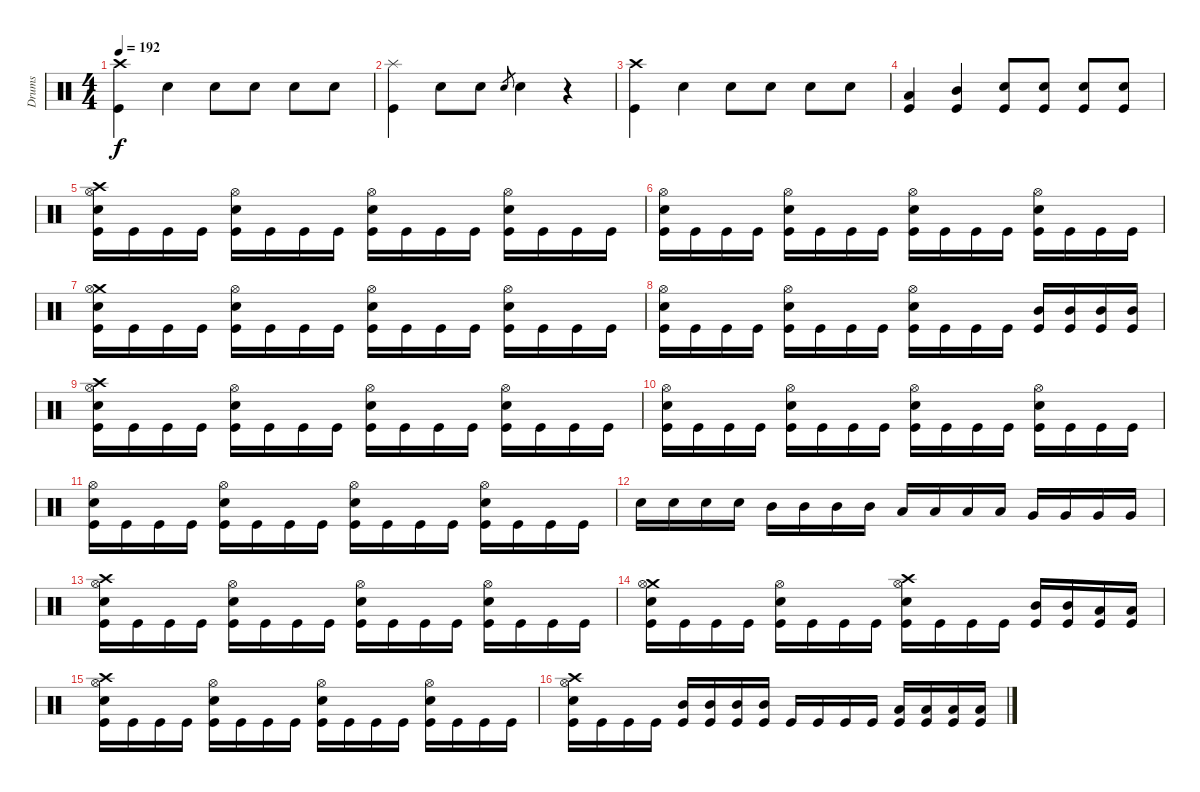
\track ("Drums" "Drums") {instrument percussion}
\staff {score}
\articulation defaults
\ts (4 4)
\tempo 192
\clef neutral
\ks c
("Crash high (hit)" "Kick (hit)").4{dy f} "Snare (hit) 2".4 "Snare (hit) 2".8 "Snare (hit) 2".8 "Snare (hit) 2".8 "Snare (hit) 2".8 |
("Splash (hit)" "Kick (hit)").4 "Snare (hit) 2".8 "Snare (hit) 2".8 "Snare (hit) 2".8{gr} "Snare (hit) 2".4 r.4 |
("Crash high (hit)" "Kick (hit)").4 "Snare (hit) 2"{tr (38 16)}.4 "Snare (hit) 2".8 "Snare (hit) 2".8 "Snare (hit) 2".8 "Snare (hit) 2".8 |
("Low Tom (hit)" "Kick (hit)").4 ("Mid Tom (hit)" "Kick (hit)").4 ("Snare (hit) 2" "Kick (hit)").8 ("Snare (hit) 2" "Kick (hit)").8 ("Snare (hit) 2" "Kick (hit)").8 ("Snare (hit) 2" "Kick (hit)").8 |
("Crash high (hit)" "Hi-Hat (open)" "Snare (hit) 2" "Kick (hit)").16 "Kick (hit)".16 "Kick (hit)".16 "Kick (hit)".16 ("Hi-Hat (open)" "Snare (hit) 2" "Kick (hit)").16 "Kick (hit)".16 "Kick (hit)".16 "Kick (hit)".16 ("Hi-Hat (open)" "Snare (hit) 2" "Kick (hit)").16 "Kick (hit)".16 "Kick (hit)".16 "Kick (hit)".16 ("Hi-Hat (open)" "Snare (hit) 2" "Kick (hit)").16 "Kick (hit)".16 "Kick (hit)".16 "Kick (hit)".16 |
("Hi-Hat (open)" "Snare (hit) 2" "Kick (hit)").16 "Kick (hit)".16 "Kick (hit)".16 "Kick (hit)".16 ("Hi-Hat (open)" "Snare (hit) 2" "Kick (hit)").16 "Kick (hit)".16 "Kick (hit)".16 "Kick (hit)".16 ("Hi-Hat (open)" "Snare (hit) 2" "Kick (hit)").16 "Kick (hit)".16 "Kick (hit)".16 "Kick (hit)".16 ("Hi-Hat (open)" "Snare (hit) 2" "Kick (hit)").16 "Kick (hit)".16 "Kick (hit)".16 "Kick (hit)".16 |
("Crash medium (hit)" "Hi-Hat (open)" "Snare (hit) 2" "Kick (hit)").16 "Kick (hit)".16 "Kick (hit)".16 "Kick (hit)".16 ("Hi-Hat (open)" "Snare (hit) 2" "Kick (hit)").16 "Kick (hit)".16 "Kick (hit)".16 "Kick (hit)".16 ("Hi-Hat (open)" "Snare (hit) 2" "Kick (hit)").16 "Kick (hit)".16 "Kick (hit)".16 "Kick (hit)".16 ("Hi-Hat (open)" "Snare (hit) 2" "Kick (hit)").16 "Kick (hit)".16 "Kick (hit)".16 "Kick (hit)".16 |
("Hi-Hat (open)" "Snare (hit) 2" "Kick (hit)").16 "Kick (hit)".16 "Kick (hit)".16 "Kick (hit)".16 ("Hi-Hat (open)" "Snare (hit) 2" "Kick (hit)").16 "Kick (hit)".16 "Kick (hit)".16 "Kick (hit)".16 ("Hi-Hat (open)" "Snare (hit) 2" "Kick (hit)").16 "Kick (hit)".16 "Kick (hit)".16 "Kick (hit)".16 ("Mid Tom (hit)" "Kick (hit)").16 ("Mid Tom (hit)" "Kick (hit)").16 ("Mid Tom (hit)" "Kick (hit)").16 ("Mid Tom (hit)" "Kick (hit)").16 |
("Crash high (hit)" "Hi-Hat (open)" "Snare (hit) 2" "Kick (hit)").16 "Kick (hit)".16 "Kick (hit)".16 "Kick (hit)".16 ("Hi-Hat (open)" "Snare (hit) 2" "Kick (hit)").16 "Kick (hit)".16 "Kick (hit)".16 "Kick (hit)".16 ("Hi-Hat (open)" "Snare (hit) 2" "Kick (hit)").16 "Kick (hit)".16 "Kick (hit)".16 "Kick (hit)".16 ("Hi-Hat (open)" "Snare (hit) 2" "Kick (hit)").16 "Kick (hit)".16 "Kick (hit)".16 "Kick (hit)".16 |
("Hi-Hat (open)" "Snare (hit) 2" "Kick (hit)").16 "Kick (hit)".16 "Kick (hit)".16 "Kick (hit)".16 ("Hi-Hat (open)" "Snare (hit) 2" "Kick (hit)").16 "Kick (hit)".16 "Kick (hit)".16 "Kick (hit)".16 ("Hi-Hat (open)" "Snare (hit) 2" "Kick (hit)").16 "Kick (hit)".16 "Kick (hit)".16 "Kick (hit)".16 ("Hi-Hat (open)" "Snare (hit) 2" "Kick (hit)").16 "Kick (hit)".16 "Kick (hit)".16 "Kick (hit)".16 |
("Hi-Hat (open)" "Snare (hit) 2" "Kick (hit)").16 "Kick (hit)".16 "Kick (hit)".16 "Kick (hit)".16 ("Hi-Hat (open)" "Snare (hit) 2" "Kick (hit)").16 "Kick (hit)".16 "Kick (hit)".16 "Kick (hit)".16 ("Hi-Hat (open)" "Snare (hit) 2" "Kick (hit)").16 "Kick (hit)".16 "Kick (hit)".16 "Kick (hit)".16 ("Hi-Hat (open)" "Snare (hit) 2" "Kick (hit)").16 "Kick (hit)".16 "Kick (hit)".16 "Kick (hit)".16 |
"Snare (hit) 2".16 "Snare (hit) 2".16 "Snare (hit) 2".16 "Snare (hit) 2".16 "Mid Tom (hit)".16 "Mid Tom (hit)".16 "Mid Tom (hit)".16 "Mid Tom (hit)".16 "Low Tom (hit)".16 "Low Tom (hit)".16 "Low Tom (hit)".16 "Low Tom (hit)".16 "Very Low Tom (hit)".16 "Very Low Tom (hit)".16 "Very Low Tom (hit)".16 "Very Low Tom (hit)".16 |
("Crash high (hit)" "Hi-Hat (open)" "Snare (hit) 2" "Kick (hit)").16 "Kick (hit)".16 "Kick (hit)".16 "Kick (hit)".16 ("Hi-Hat (open)" "Snare (hit) 2" "Kick (hit)").16 "Kick (hit)".16 "Kick (hit)".16 "Kick (hit)".16 ("Hi-Hat (open)" "Snare (hit) 2" "Kick (hit)").16 "Kick (hit)".16 "Kick (hit)".16 "Kick (hit)".16 ("Hi-Hat (open)" "Snare (hit) 2" "Kick (hit)").16 "Kick (hit)".16 "Kick (hit)".16 "Kick (hit)".16 |
("Crash medium (hit)" "Hi-Hat (open)" "Snare (hit) 2" "Kick (hit)").16 "Kick (hit)".16 "Kick (hit)".16 "Kick (hit)".16 ("Hi-Hat (open)" "Snare (hit) 2" "Kick (hit)").16 "Kick (hit)".16 "Kick (hit)".16 "Kick (hit)".16 ("Crash high (hit)" "Hi-Hat (open)" "Snare (hit) 2" "Kick (hit)").16 "Kick (hit)".16 "Kick (hit)".16 "Kick (hit)".16 ("Mid Tom (hit)" "Kick (hit)").16 ("Mid Tom (hit)" "Kick (hit)").16 ("Low Tom (hit)" "Kick (hit)").16 ("Low Tom (hit)" "Kick (hit)").16 |
("Crash high (hit)" "Hi-Hat (open)" "Snare (hit) 2" "Kick (hit)").16 "Kick (hit)".16 "Kick (hit)".16 "Kick (hit)".16 ("Hi-Hat (open)" "Snare (hit) 2" "Kick (hit)").16 "Kick (hit)".16 "Kick (hit)".16 "Kick (hit)".16 ("Hi-Hat (open)" "Snare (hit) 2" "Kick (hit)").16 "Kick (hit)".16 "Kick (hit)".16 "Kick (hit)".16 ("Hi-Hat (open)" "Snare (hit) 2" "Kick (hit)").16 "Kick (hit)".16 "Kick (hit)".16 "Kick (hit)".16 |
("Crash high (hit)" "Hi-Hat (open)" "Snare (hit) 2" "Kick (hit)").16 "Kick (hit)".16 "Kick (hit)".16 "Kick (hit)".16 ("Mid Tom (hit)" "Kick (hit)").16 ("Mid Tom (hit)" "Kick (hit)").16 ("Mid Tom (hit)" "Kick (hit)").16 ("Mid Tom (hit)" "Kick (hit)").16 "Kick (hit)".16 "Kick (hit)".16 "Kick (hit)".16 "Kick (hit)".16 ("Low Tom (hit)" "Kick (hit)").16 ("Low Tom (hit)" "Kick (hit)").16 ("Low Tom (hit)" "Kick (hit)").16 ("Low Tom (hit)" "Kick (hit)").16
